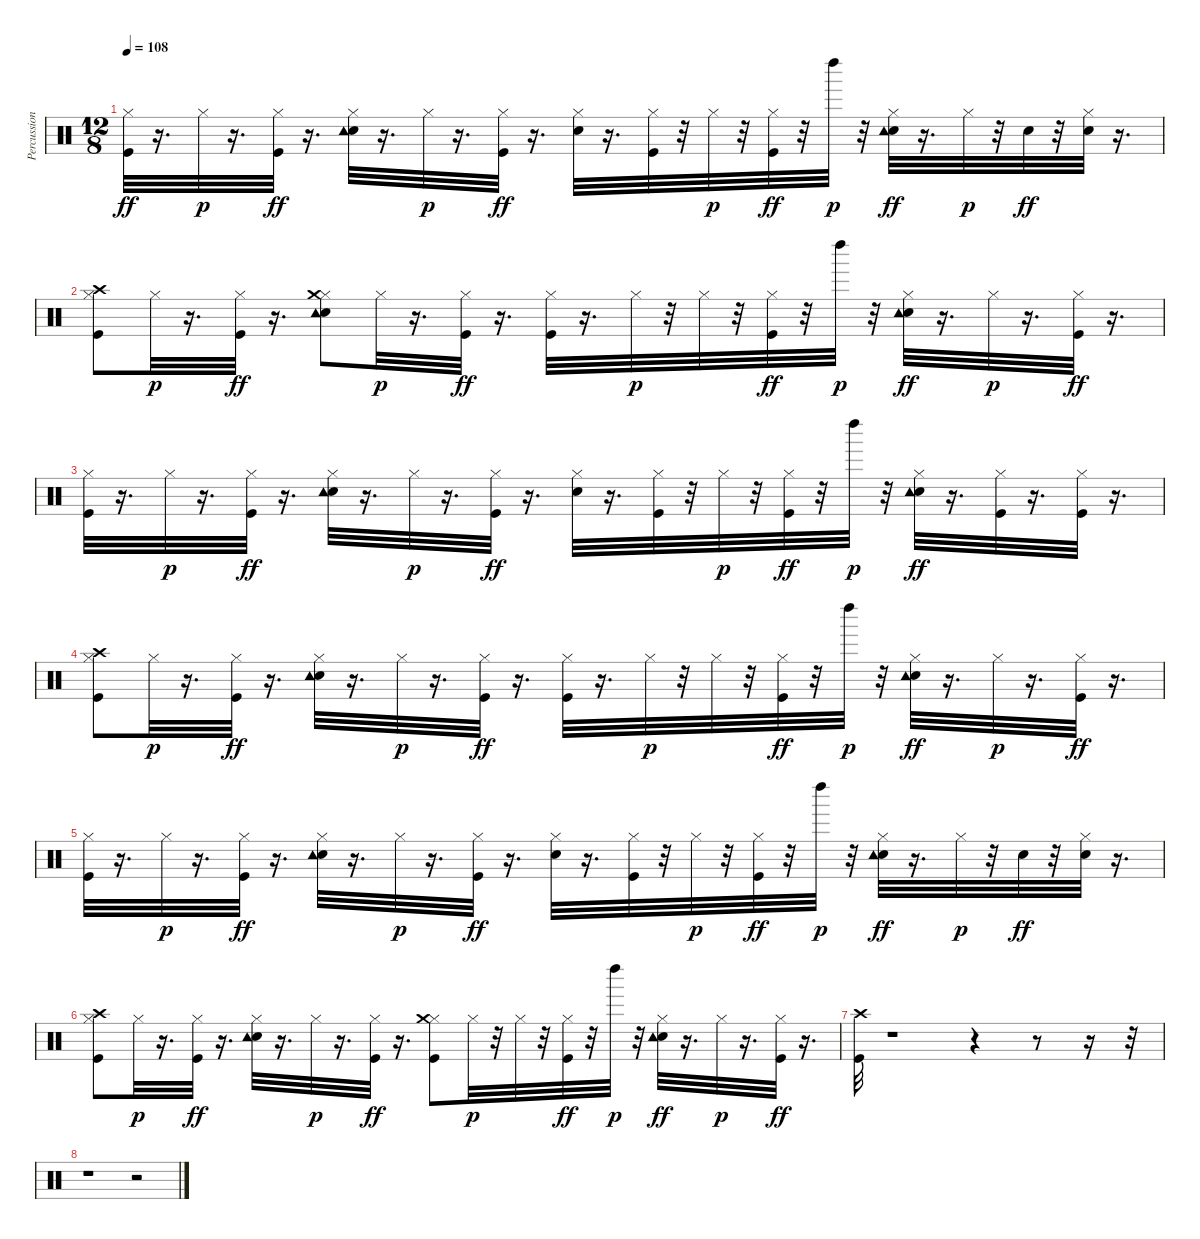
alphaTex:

\track ("Percussion" "Percussion") {instrument percussion}
\staff {score}
\articulation defaults
\ts (12 8)
\tempo 108
\clef neutral
\ks c
("Hi-Hat (closed)" "Kick (hit)").32{dy ff} r.16{d} "Hi-Hat (closed)".32{dy p} r.16{d} ("Hi-Hat (closed)" "Kick (hit)").32{dy ff} r.16{d} ("Hi-Hat (closed)" "Snare (hit) 2" "Tambourine (hit)").32 r.16{d} "Hi-Hat (closed)".32{dy p} r.16{d} ("Hi-Hat (closed)" "Kick (hit)").32{dy ff} r.16{d} ("Hi-Hat (closed)" "Snare (hit) 2").32 r.16{d} ("Hi-Hat (closed)" "Kick (hit)").32 r.32 "Hi-Hat (closed)".32{dy p} r.32 ("Hi-Hat (closed)" "Kick (hit)").32{dy ff} r.32 "Left Maraca (hit)".32{dy p} r.32 ("Hi-Hat (closed)" "Snare (hit) 2" "Tambourine (hit)").32{dy ff} r.16{d} "Hi-Hat (closed)".32{dy p} r.32 "Snare (hit) 2".32{dy ff} r.32 ("Hi-Hat (closed)" "Snare (hit) 2").32 r.16{d} |
("Hi-Hat (closed)" "Kick (hit)" "Crash high (hit)").8 "Hi-Hat (closed)".32{dy p} r.16{d} ("Hi-Hat (closed)" "Kick (hit)").32{dy ff} r.16{d} ("Hi-Hat (closed)" "Snare (hit) 2" "Tambourine (hit)" "Crash medium (hit)").8 "Hi-Hat (closed)".32{dy p} r.16{d} ("Hi-Hat (closed)" "Kick (hit)").32{dy ff} r.16{d} ("Hi-Hat (closed)" "Kick (hit)").32 r.16{d} "Hi-Hat (closed)".32{dy p} r.32 "Hi-Hat (closed)".32 r.32 ("Hi-Hat (closed)" "Kick (hit)").32{dy ff} r.32 "Left Maraca (hit)".32{dy p} r.32 ("Hi-Hat (closed)" "Snare (hit) 2" "Tambourine (hit)").32{dy ff} r.16{d} "Hi-Hat (closed)".32{dy p} r.16{d} ("Hi-Hat (closed)" "Kick (hit)").32{dy ff} r.16{d} |
("Hi-Hat (closed)" "Kick (hit)").32 r.16{d} "Hi-Hat (closed)".32{dy p} r.16{d} ("Hi-Hat (closed)" "Kick (hit)").32{dy ff} r.16{d} ("Hi-Hat (closed)" "Snare (hit) 2" "Tambourine (hit)").32 r.16{d} "Hi-Hat (closed)".32{dy p} r.16{d} ("Hi-Hat (closed)" "Kick (hit)").32{dy ff} r.16{d} ("Hi-Hat (closed)" "Snare (hit) 2").32 r.16{d} ("Hi-Hat (closed)" "Kick (hit)").32 r.32 "Hi-Hat (closed)".32{dy p} r.32 ("Hi-Hat (closed)" "Kick (hit)").32{dy ff} r.32 "Left Maraca (hit)".32{dy p} r.32 ("Hi-Hat (closed)" "Snare (hit) 2" "Tambourine (hit)").32{dy ff} r.16{d} ("Hi-Hat (closed)" "Kick (hit)").32 r.16{d} ("Hi-Hat (closed)" "Kick (hit)").32 r.16{d} |
("Hi-Hat (closed)" "Kick (hit)" "Crash high (hit)").8 "Hi-Hat (closed)".32{dy p} r.16{d} ("Hi-Hat (closed)" "Kick (hit)").32{dy ff} r.16{d} ("Hi-Hat (closed)" "Snare (hit) 2" "Tambourine (hit)").32 r.16{d} "Hi-Hat (closed)".32{dy p} r.16{d} ("Hi-Hat (closed)" "Kick (hit)").32{dy ff} r.16{d} ("Hi-Hat (closed)" "Kick (hit)").32 r.16{d} "Hi-Hat (closed)".32{dy p} r.32 "Hi-Hat (closed)".32 r.32 ("Hi-Hat (closed)" "Kick (hit)").32{dy ff} r.32 "Left Maraca (hit)".32{dy p} r.32 ("Hi-Hat (closed)" "Snare (hit) 2" "Tambourine (hit)").32{dy ff} r.16{d} "Hi-Hat (closed)".32{dy p} r.16{d} ("Hi-Hat (closed)" "Kick (hit)").32{dy ff} r.16{d} |
("Hi-Hat (closed)" "Kick (hit)").32 r.16{d} "Hi-Hat (closed)".32{dy p} r.16{d} ("Hi-Hat (closed)" "Kick (hit)").32{dy ff} r.16{d} ("Hi-Hat (closed)" "Snare (hit) 2" "Tambourine (hit)").32 r.16{d} "Hi-Hat (closed)".32{dy p} r.16{d} ("Hi-Hat (closed)" "Kick (hit)").32{dy ff} r.16{d} ("Hi-Hat (closed)" "Snare (hit) 2").32 r.16{d} ("Hi-Hat (closed)" "Kick (hit)").32 r.32 "Hi-Hat (closed)".32{dy p} r.32 ("Hi-Hat (closed)" "Kick (hit)").32{dy ff} r.32 "Left Maraca (hit)".32{dy p} r.32 ("Hi-Hat (closed)" "Snare (hit) 2" "Tambourine (hit)").32{dy ff} r.16{d} "Hi-Hat (closed)".32{dy p} r.32 "Snare (hit) 2".32{dy ff} r.32 ("Hi-Hat (closed)" "Snare (hit) 2").32 r.16{d} |
("Hi-Hat (closed)" "Kick (hit)" "Crash high (hit)").8 "Hi-Hat (closed)".32{dy p} r.16{d} ("Hi-Hat (closed)" "Kick (hit)").32{dy ff} r.16{d} ("Hi-Hat (closed)" "Snare (hit) 2" "Tambourine (hit)").32 r.16{d} "Hi-Hat (closed)".32{dy p} r.16{d} ("Hi-Hat (closed)" "Kick (hit)").32{dy ff} r.16{d} ("Hi-Hat (closed)" "Kick (hit)" "Crash medium (hit)").8 "Hi-Hat (closed)".32{dy p} r.32 "Hi-Hat (closed)".32 r.32 ("Hi-Hat (closed)" "Kick (hit)").32{dy ff} r.32 "Left Maraca (hit)".32{dy p} r.32 ("Hi-Hat (closed)" "Snare (hit) 2" "Tambourine (hit)").32{dy ff} r.16{d} "Hi-Hat (closed)".32{dy p} r.16{d} ("Hi-Hat (closed)" "Kick (hit)").32{dy ff} r.16{d} |
("Kick (hit)" "Crash high (hit)").32 r.1 r.4 r.8 r.16 r.32 |
r.1 r.2
